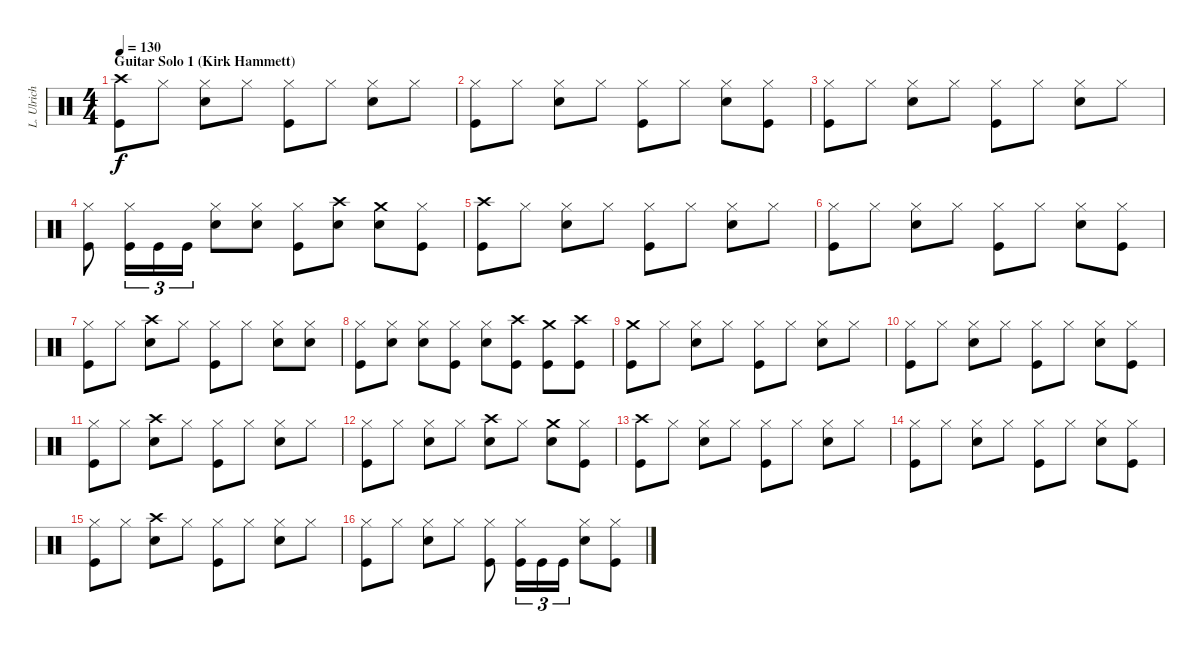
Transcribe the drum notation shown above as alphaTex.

\track ("L. Ulrich" "L. Ulrich") {instrument percussion}
\staff {score}
\articulation defaults
\ts (4 4)
\section ("" "Guitar Solo 1 (Kirk Hammett)")
\tempo 130
\clef neutral
\ks c
("Crash high (hit)" "Kick (hit)").8{dy f} "Hi-Hat (closed)".8 ("Hi-Hat (closed)" "Snare (hit) 2").8 "Hi-Hat (closed)".8 ("Hi-Hat (closed)" "Kick (hit)").8 "Hi-Hat (closed)".8 ("Hi-Hat (closed)" "Snare (hit) 2").8 "Hi-Hat (closed)".8 |
("Hi-Hat (closed)" "Kick (hit)").8 "Hi-Hat (closed)".8 ("Hi-Hat (closed)" "Snare (hit) 2").8 "Hi-Hat (closed)".8 ("Hi-Hat (closed)" "Kick (hit)").8 "Hi-Hat (closed)".8 ("Hi-Hat (closed)" "Snare (hit) 2").8 ("Hi-Hat (closed)" "Kick (hit)").8 |
("Hi-Hat (closed)" "Kick (hit)").8 "Hi-Hat (closed)".8 ("Hi-Hat (closed)" "Snare (hit) 2").8 "Hi-Hat (closed)".8 ("Hi-Hat (closed)" "Kick (hit)").8 "Hi-Hat (closed)".8 ("Hi-Hat (closed)" "Snare (hit) 2").8 "Hi-Hat (closed)".8 |
("Hi-Hat (closed)" "Kick (hit)").8 ("Hi-Hat (closed)" "Kick (hit)").16{tu (3 2)} "Kick (hit)".16{tu (3 2)} "Kick (hit)".16{tu (3 2)} ("Hi-Hat (closed)" "Snare (hit) 2").8 ("Hi-Hat (closed)" "Snare (hit) 2").8 ("Hi-Hat (closed)" "Kick (hit)").8 ("Crash high (hit)" "Snare (hit) 2").8 ("Crash medium (hit)" "Snare (hit) 2").8 ("Hi-Hat (closed)" "Kick (hit)").8 |
("Crash high (hit)" "Kick (hit)").8 "Hi-Hat (closed)".8 ("Hi-Hat (closed)" "Snare (hit) 2").8 "Hi-Hat (closed)".8 ("Hi-Hat (closed)" "Kick (hit)").8 "Hi-Hat (closed)".8 ("Hi-Hat (closed)" "Snare (hit) 2").8 "Hi-Hat (closed)".8 |
("Hi-Hat (closed)" "Kick (hit)").8 "Hi-Hat (closed)".8 ("Hi-Hat (closed)" "Snare (hit) 2").8 "Hi-Hat (closed)".8 ("Hi-Hat (closed)" "Kick (hit)").8 "Hi-Hat (closed)".8 ("Hi-Hat (closed)" "Snare (hit) 2").8 ("Hi-Hat (closed)" "Kick (hit)").8 |
("Hi-Hat (closed)" "Kick (hit)").8 "Hi-Hat (closed)".8 ("Crash high (hit)" "Snare (hit) 2").8 "Hi-Hat (closed)".8 ("Hi-Hat (closed)" "Kick (hit)").8 "Hi-Hat (closed)".8 ("Hi-Hat (closed)" "Snare (hit) 2").8 ("Hi-Hat (closed)" "Snare (hit) 2").8 |
("Hi-Hat (closed)" "Kick (hit)").8 ("Hi-Hat (closed)" "Snare (hit) 2").8 ("Hi-Hat (closed)" "Snare (hit) 2").8 ("Hi-Hat (closed)" "Kick (hit)").8 ("Hi-Hat (closed)" "Snare (hit) 2").8 ("Crash high (hit)" "Kick (hit)").8 ("Crash medium (hit)" "Kick (hit)").8 ("Crash high (hit)" "Kick (hit)").8 |
("Crash medium (hit)" "Kick (hit)").8 "Hi-Hat (closed)".8 ("Hi-Hat (closed)" "Snare (hit) 2").8 "Hi-Hat (closed)".8 ("Hi-Hat (closed)" "Kick (hit)").8 "Hi-Hat (closed)".8 ("Hi-Hat (closed)" "Snare (hit) 2").8 "Hi-Hat (closed)".8 |
("Hi-Hat (closed)" "Kick (hit)").8 "Hi-Hat (closed)".8 ("Hi-Hat (closed)" "Snare (hit) 2").8 "Hi-Hat (closed)".8 ("Hi-Hat (closed)" "Kick (hit)").8 "Hi-Hat (closed)".8 ("Hi-Hat (closed)" "Snare (hit) 2").8 ("Hi-Hat (closed)" "Kick (hit)").8 |
("Hi-Hat (closed)" "Kick (hit)").8 "Hi-Hat (closed)".8 ("Crash high (hit)" "Snare (hit) 2").8 "Hi-Hat (closed)".8 ("Hi-Hat (closed)" "Kick (hit)").8 "Hi-Hat (closed)".8 ("Hi-Hat (closed)" "Snare (hit) 2").8 "Hi-Hat (closed)".8 |
("Hi-Hat (closed)" "Kick (hit)").8 "Hi-Hat (closed)".8 ("Hi-Hat (closed)" "Snare (hit) 2").8 "Hi-Hat (closed)".8 ("Crash high (hit)" "Snare (hit) 2").8 "Hi-Hat (closed)".8 ("Crash medium (hit)" "Snare (hit) 2").8 ("Hi-Hat (closed)" "Kick (hit)").8 |
("Crash high (hit)" "Kick (hit)").8 "Hi-Hat (closed)".8 ("Hi-Hat (closed)" "Snare (hit) 2").8 "Hi-Hat (closed)".8 ("Hi-Hat (closed)" "Kick (hit)").8 "Hi-Hat (closed)".8 ("Hi-Hat (closed)" "Snare (hit) 2").8 "Hi-Hat (closed)".8 |
("Hi-Hat (closed)" "Kick (hit)").8 "Hi-Hat (closed)".8 ("Hi-Hat (closed)" "Snare (hit) 2").8 "Hi-Hat (closed)".8 ("Hi-Hat (closed)" "Kick (hit)").8 "Hi-Hat (closed)".8 ("Hi-Hat (closed)" "Snare (hit) 2").8 ("Hi-Hat (closed)" "Kick (hit)").8 |
("Hi-Hat (closed)" "Kick (hit)").8 "Hi-Hat (closed)".8 ("Crash high (hit)" "Snare (hit) 2").8 "Hi-Hat (closed)".8 ("Hi-Hat (closed)" "Kick (hit)").8 "Hi-Hat (closed)".8 ("Hi-Hat (closed)" "Snare (hit) 2").8 "Hi-Hat (closed)".8 |
("Hi-Hat (closed)" "Kick (hit)").8 "Hi-Hat (closed)".8 ("Hi-Hat (closed)" "Snare (hit) 2").8 "Hi-Hat (closed)".8 ("Hi-Hat (closed)" "Kick (hit)").8 ("Hi-Hat (closed)" "Kick (hit)").16{tu (3 2)} "Kick (hit)".16{tu (3 2)} "Kick (hit)".16{tu (3 2)} ("Hi-Hat (closed)" "Snare (hit) 2").8 ("Hi-Hat (closed)" "Kick (hit)").8
